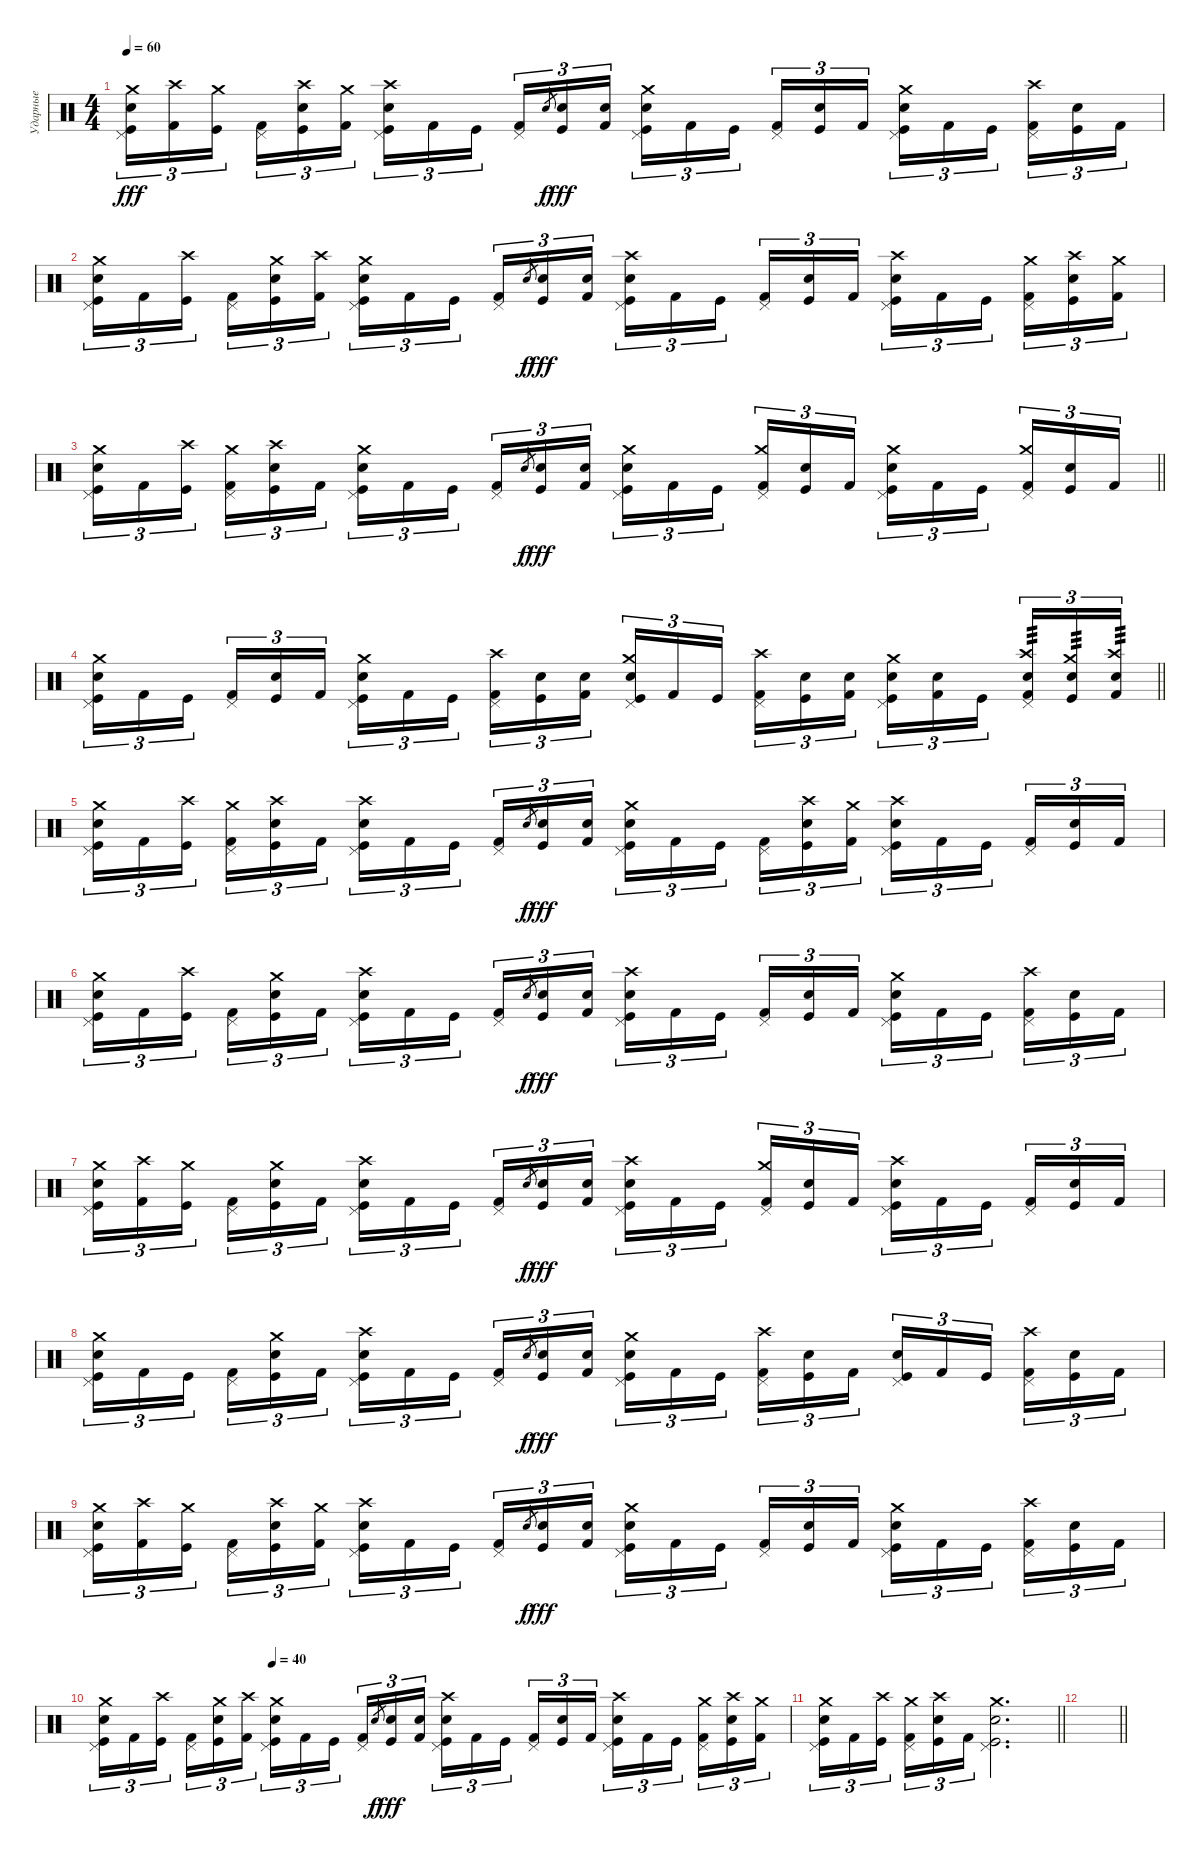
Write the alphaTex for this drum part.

\track ("Ударные" "Ударные") {instrument percussion}
\staff {score}
\articulation defaults
\ts (4 4)
\tempo 60
\clef neutral
\ks c
("Snare (hit) 2" "Kick (hit)" "Pedal Hi-Hat (hit)" "Crash medium (hit)").16{tu (3 2) dy fff} ("Kick (hit) 2" "Crash high (hit)").16{tu (3 2)} ("Kick (hit)" "Crash medium (hit)").16{tu (3 2) beam splitsecondary} ("Kick (hit) 2" "Pedal Hi-Hat (hit)").16{tu (3 2)} ("Snare (hit) 2" "Kick (hit)" "Crash high (hit)").16{tu (3 2)} ("Kick (hit) 2" "Crash medium (hit)").16{tu (3 2)} ("Snare (hit) 2" "Kick (hit)" "Pedal Hi-Hat (hit)" "Crash high (hit)").16{tu (3 2)} "Kick (hit) 2".16{tu (3 2)} "Kick (hit)".16{tu (3 2) beam splitsecondary} ("Kick (hit) 2" "Pedal Hi-Hat (hit)").16{tu (3 2)} "Electric Snare (hit)".8{gr dy f} ("Electric Snare (hit)" "Kick (hit)").16{tu (3 2) dy fff} ("Electric Snare (hit)" "Kick (hit) 2").16{tu (3 2)} ("Snare (hit) 2" "Kick (hit)" "Pedal Hi-Hat (hit)" "Crash medium (hit)").16{tu (3 2)} "Kick (hit) 2".16{tu (3 2)} "Kick (hit)".16{tu (3 2) beam splitsecondary} ("Kick (hit) 2" "Pedal Hi-Hat (hit)").16{tu (3 2)} ("Snare (hit) 2" "Kick (hit)").16{tu (3 2)} "Kick (hit) 2".16{tu (3 2)} ("Snare (hit) 2" "Kick (hit)" "Pedal Hi-Hat (hit)" "Crash medium (hit)").16{tu (3 2)} "Kick (hit) 2".16{tu (3 2)} "Kick (hit)".16{tu (3 2) beam splitsecondary} ("Kick (hit) 2" "Pedal Hi-Hat (hit)" "Crash high (hit)").16{tu (3 2)} ("Snare (hit) 2" "Kick (hit)").16{tu (3 2)} "Kick (hit) 2".16{tu (3 2)} |
("Snare (hit) 2" "Kick (hit)" "Pedal Hi-Hat (hit)" "Crash medium (hit)").16{tu (3 2)} "Kick (hit) 2".16{tu (3 2)} ("Kick (hit)" "Crash high (hit)").16{tu (3 2) beam splitsecondary} ("Kick (hit) 2" "Pedal Hi-Hat (hit)").16{tu (3 2)} ("Snare (hit) 2" "Kick (hit)" "Crash medium (hit)").16{tu (3 2)} ("Kick (hit) 2" "Crash high (hit)").16{tu (3 2)} ("Snare (hit) 2" "Kick (hit)" "Pedal Hi-Hat (hit)" "Crash medium (hit)").16{tu (3 2)} "Kick (hit) 2".16{tu (3 2)} "Kick (hit)".16{tu (3 2) beam splitsecondary} ("Kick (hit) 2" "Pedal Hi-Hat (hit)").16{tu (3 2)} "Electric Snare (hit)".8{gr dy f} ("Electric Snare (hit)" "Kick (hit)").16{tu (3 2) dy fff} ("Electric Snare (hit)" "Kick (hit) 2").16{tu (3 2)} ("Snare (hit) 2" "Kick (hit)" "Pedal Hi-Hat (hit)" "Crash high (hit)").16{tu (3 2)} "Kick (hit) 2".16{tu (3 2)} "Kick (hit)".16{tu (3 2) beam splitsecondary} ("Kick (hit) 2" "Pedal Hi-Hat (hit)").16{tu (3 2)} ("Snare (hit) 2" "Kick (hit)").16{tu (3 2)} "Kick (hit) 2".16{tu (3 2)} ("Snare (hit) 2" "Kick (hit)" "Pedal Hi-Hat (hit)" "Crash high (hit)").16{tu (3 2)} "Kick (hit) 2".16{tu (3 2)} "Kick (hit)".16{tu (3 2) beam splitsecondary} ("Kick (hit) 2" "Pedal Hi-Hat (hit)" "Crash medium (hit)").16{tu (3 2)} ("Snare (hit) 2" "Kick (hit)" "Crash high (hit)").16{tu (3 2)} ("Kick (hit) 2" "Crash medium (hit)").16{tu (3 2)} |
\barLineRight lightlight
("Snare (hit) 2" "Kick (hit)" "Pedal Hi-Hat (hit)" "Crash medium (hit)").16{tu (3 2)} "Kick (hit) 2".16{tu (3 2)} ("Kick (hit)" "Crash high (hit)").16{tu (3 2) beam splitsecondary} ("Kick (hit) 2" "Pedal Hi-Hat (hit)" "Crash medium (hit)").16{tu (3 2)} ("Snare (hit) 2" "Kick (hit)" "Crash high (hit)").16{tu (3 2)} "Kick (hit) 2".16{tu (3 2)} ("Snare (hit) 2" "Kick (hit)" "Pedal Hi-Hat (hit)" "Crash medium (hit)").16{tu (3 2)} "Kick (hit) 2".16{tu (3 2)} "Kick (hit)".16{tu (3 2) beam splitsecondary} ("Kick (hit) 2" "Pedal Hi-Hat (hit)").16{tu (3 2)} "Electric Snare (hit)".8{gr dy f} ("Electric Snare (hit)" "Kick (hit)").16{tu (3 2) dy fff} ("Electric Snare (hit)" "Kick (hit) 2").16{tu (3 2)} ("Snare (hit) 2" "Kick (hit)" "Pedal Hi-Hat (hit)" "Crash medium (hit)").16{tu (3 2)} "Kick (hit) 2".16{tu (3 2)} "Kick (hit)".16{tu (3 2) beam splitsecondary} ("Kick (hit) 2" "Pedal Hi-Hat (hit)" "Crash medium (hit)").16{tu (3 2)} ("Snare (hit) 2" "Kick (hit)").16{tu (3 2)} "Kick (hit) 2".16{tu (3 2)} ("Snare (hit) 2" "Kick (hit)" "Pedal Hi-Hat (hit)" "Crash medium (hit)").16{tu (3 2)} "Kick (hit) 2".16{tu (3 2)} "Kick (hit)".16{tu (3 2) beam splitsecondary} ("Kick (hit) 2" "Pedal Hi-Hat (hit)" "Crash medium (hit)").16{tu (3 2)} ("Snare (hit) 2" "Kick (hit)").16{tu (3 2)} "Kick (hit) 2".16{tu (3 2)} |
\barLineRight lightlight
("Snare (hit) 2" "Kick (hit)" "Pedal Hi-Hat (hit)" "Crash medium (hit)").16{tu (3 2)} "Kick (hit) 2".16{tu (3 2)} "Kick (hit)".16{tu (3 2) beam splitsecondary} ("Kick (hit) 2" "Pedal Hi-Hat (hit)").16{tu (3 2)} ("Snare (hit) 2" "Kick (hit)").16{tu (3 2)} "Kick (hit) 2".16{tu (3 2)} ("Snare (hit) 2" "Kick (hit)" "Pedal Hi-Hat (hit)" "Crash medium (hit)").16{tu (3 2)} "Kick (hit) 2".16{tu (3 2)} "Kick (hit)".16{tu (3 2) beam splitsecondary} ("Kick (hit) 2" "Pedal Hi-Hat (hit)" "Crash high (hit)").16{tu (3 2)} ("Electric Snare (hit)" "Kick (hit)").16{tu (3 2)} ("Snare (hit) 2" "Kick (hit) 2").16{tu (3 2)} ("Electric Snare (hit)" "Kick (hit)" "Pedal Hi-Hat (hit)" "Crash medium (hit)").16{tu (3 2)} "Kick (hit) 2".16{tu (3 2)} "Kick (hit)".16{tu (3 2) beam splitsecondary} ("Kick (hit) 2" "Pedal Hi-Hat (hit)" "Crash high (hit)").16{tu (3 2)} ("Snare (hit) 2" "Kick (hit)").16{tu (3 2)} ("Electric Snare (hit)" "Kick (hit) 2").16{tu (3 2)} ("Snare (hit) 2" "Kick (hit)" "Pedal Hi-Hat (hit)" "Crash medium (hit)").16{tu (3 2)} ("Electric Snare (hit)" "Kick (hit) 2").16{tu (3 2)} "Kick (hit)".16{tu (3 2) beam splitsecondary} ("Electric Snare (hit)" "Kick (hit) 2" "Pedal Hi-Hat (hit)" "Crash high (hit)").16{tu (3 2) tp 3} ("Electric Snare (hit)" "Kick (hit)" "Crash medium (hit)").16{tu (3 2) tp 3} ("Electric Snare (hit)" "Kick (hit) 2" "Crash high (hit)").16{tu (3 2) tp 3} |
("Snare (hit) 2" "Kick (hit)" "Pedal Hi-Hat (hit)" "Crash medium (hit)").16{tu (3 2)} "Kick (hit) 2".16{tu (3 2)} ("Kick (hit)" "Crash high (hit)").16{tu (3 2) beam splitsecondary} ("Kick (hit) 2" "Pedal Hi-Hat (hit)" "Crash medium (hit)").16{tu (3 2)} ("Snare (hit) 2" "Kick (hit)" "Crash high (hit)").16{tu (3 2)} "Kick (hit) 2".16{tu (3 2)} ("Snare (hit) 2" "Kick (hit)" "Pedal Hi-Hat (hit)" "Crash high (hit)").16{tu (3 2)} "Kick (hit) 2".16{tu (3 2)} "Kick (hit)".16{tu (3 2) beam splitsecondary} ("Kick (hit) 2" "Pedal Hi-Hat (hit)").16{tu (3 2)} "Electric Snare (hit)".8{gr dy f} ("Electric Snare (hit)" "Kick (hit)").16{tu (3 2) dy fff} ("Electric Snare (hit)" "Kick (hit) 2").16{tu (3 2)} ("Snare (hit) 2" "Kick (hit)" "Pedal Hi-Hat (hit)" "Crash medium (hit)").16{tu (3 2)} "Kick (hit) 2".16{tu (3 2)} "Kick (hit)".16{tu (3 2) beam splitsecondary} ("Kick (hit) 2" "Pedal Hi-Hat (hit)").16{tu (3 2)} ("Snare (hit) 2" "Kick (hit)" "Crash high (hit)").16{tu (3 2)} ("Kick (hit) 2" "Crash medium (hit)").16{tu (3 2)} ("Snare (hit) 2" "Kick (hit)" "Pedal Hi-Hat (hit)" "Crash high (hit)").16{tu (3 2)} "Kick (hit) 2".16{tu (3 2)} "Kick (hit)".16{tu (3 2) beam splitsecondary} ("Kick (hit) 2" "Pedal Hi-Hat (hit)").16{tu (3 2)} ("Snare (hit) 2" "Kick (hit)").16{tu (3 2)} "Kick (hit) 2".16{tu (3 2)} |
("Snare (hit) 2" "Kick (hit)" "Pedal Hi-Hat (hit)" "Crash medium (hit)").16{tu (3 2)} "Kick (hit) 2".16{tu (3 2)} ("Kick (hit)" "Crash high (hit)").16{tu (3 2) beam splitsecondary} ("Kick (hit) 2" "Pedal Hi-Hat (hit)").16{tu (3 2)} ("Snare (hit) 2" "Kick (hit)" "Crash medium (hit)").16{tu (3 2)} "Kick (hit) 2".16{tu (3 2)} ("Snare (hit) 2" "Kick (hit)" "Pedal Hi-Hat (hit)" "Crash high (hit)").16{tu (3 2)} "Kick (hit) 2".16{tu (3 2)} "Kick (hit)".16{tu (3 2) beam splitsecondary} ("Kick (hit) 2" "Pedal Hi-Hat (hit)").16{tu (3 2)} "Electric Snare (hit)".8{gr dy f} ("Electric Snare (hit)" "Kick (hit)").16{tu (3 2) dy fff} ("Electric Snare (hit)" "Kick (hit) 2").16{tu (3 2)} ("Snare (hit) 2" "Kick (hit)" "Pedal Hi-Hat (hit)" "Crash high (hit)").16{tu (3 2)} "Kick (hit) 2".16{tu (3 2)} "Kick (hit)".16{tu (3 2) beam splitsecondary} ("Kick (hit) 2" "Pedal Hi-Hat (hit)").16{tu (3 2)} ("Snare (hit) 2" "Kick (hit)").16{tu (3 2)} "Kick (hit) 2".16{tu (3 2)} ("Snare (hit) 2" "Kick (hit)" "Pedal Hi-Hat (hit)" "Crash medium (hit)").16{tu (3 2)} "Kick (hit) 2".16{tu (3 2)} "Kick (hit)".16{tu (3 2) beam splitsecondary} ("Kick (hit) 2" "Pedal Hi-Hat (hit)" "Crash high (hit)").16{tu (3 2)} ("Snare (hit) 2" "Kick (hit)").16{tu (3 2)} "Kick (hit) 2".16{tu (3 2)} |
("Snare (hit) 2" "Kick (hit)" "Pedal Hi-Hat (hit)" "Crash medium (hit)").16{tu (3 2)} ("Kick (hit) 2" "Crash high (hit)").16{tu (3 2)} ("Kick (hit)" "Crash medium (hit)").16{tu (3 2) beam splitsecondary} ("Kick (hit) 2" "Pedal Hi-Hat (hit)").16{tu (3 2)} ("Snare (hit) 2" "Kick (hit)" "Crash medium (hit)").16{tu (3 2)} "Kick (hit) 2".16{tu (3 2)} ("Snare (hit) 2" "Kick (hit)" "Pedal Hi-Hat (hit)" "Crash high (hit)").16{tu (3 2)} "Kick (hit) 2".16{tu (3 2)} "Kick (hit)".16{tu (3 2) beam splitsecondary} ("Kick (hit) 2" "Pedal Hi-Hat (hit)").16{tu (3 2)} "Electric Snare (hit)".8{gr dy f} ("Electric Snare (hit)" "Kick (hit)").16{tu (3 2) dy fff} ("Electric Snare (hit)" "Kick (hit) 2").16{tu (3 2)} ("Snare (hit) 2" "Kick (hit)" "Pedal Hi-Hat (hit)" "Crash high (hit)").16{tu (3 2)} "Kick (hit) 2".16{tu (3 2)} "Kick (hit)".16{tu (3 2) beam splitsecondary} ("Kick (hit) 2" "Pedal Hi-Hat (hit)" "Crash medium (hit)").16{tu (3 2)} ("Snare (hit) 2" "Kick (hit)").16{tu (3 2)} "Kick (hit) 2".16{tu (3 2)} ("Snare (hit) 2" "Kick (hit)" "Pedal Hi-Hat (hit)" "Crash high (hit)").16{tu (3 2)} "Kick (hit) 2".16{tu (3 2)} "Kick (hit)".16{tu (3 2) beam splitsecondary} ("Kick (hit) 2" "Pedal Hi-Hat (hit)").16{tu (3 2)} ("Snare (hit) 2" "Kick (hit)").16{tu (3 2)} "Kick (hit) 2".16{tu (3 2)} |
("Snare (hit) 2" "Kick (hit)" "Pedal Hi-Hat (hit)" "Crash medium (hit)").16{tu (3 2)} "Kick (hit) 2".16{tu (3 2)} "Kick (hit)".16{tu (3 2) beam splitsecondary} ("Kick (hit) 2" "Pedal Hi-Hat (hit)").16{tu (3 2)} ("Snare (hit) 2" "Kick (hit)" "Crash medium (hit)").16{tu (3 2)} "Kick (hit) 2".16{tu (3 2)} ("Snare (hit) 2" "Kick (hit)" "Pedal Hi-Hat (hit)" "Crash high (hit)").16{tu (3 2)} "Kick (hit) 2".16{tu (3 2)} "Kick (hit)".16{tu (3 2) beam splitsecondary} ("Kick (hit) 2" "Pedal Hi-Hat (hit)").16{tu (3 2)} "Electric Snare (hit)".8{gr dy f} ("Electric Snare (hit)" "Kick (hit)").16{tu (3 2) dy fff} ("Electric Snare (hit)" "Kick (hit) 2").16{tu (3 2)} ("Snare (hit) 2" "Kick (hit)" "Pedal Hi-Hat (hit)" "Crash medium (hit)").16{tu (3 2)} "Kick (hit) 2".16{tu (3 2)} "Kick (hit)".16{tu (3 2) beam splitsecondary} ("Kick (hit) 2" "Pedal Hi-Hat (hit)" "Crash high (hit)").16{tu (3 2)} ("Snare (hit) 2" "Kick (hit)").16{tu (3 2)} "Kick (hit) 2".16{tu (3 2)} ("Snare (hit) 2" "Kick (hit)" "Pedal Hi-Hat (hit)").16{tu (3 2)} "Kick (hit) 2".16{tu (3 2)} "Kick (hit)".16{tu (3 2) beam splitsecondary} ("Kick (hit) 2" "Pedal Hi-Hat (hit)" "Crash high (hit)").16{tu (3 2)} ("Snare (hit) 2" "Kick (hit)").16{tu (3 2)} "Kick (hit) 2".16{tu (3 2)} |
("Snare (hit) 2" "Kick (hit)" "Pedal Hi-Hat (hit)" "Crash medium (hit)").16{tu (3 2)} ("Kick (hit) 2" "Crash high (hit)").16{tu (3 2)} ("Kick (hit)" "Crash medium (hit)").16{tu (3 2) beam splitsecondary} ("Kick (hit) 2" "Pedal Hi-Hat (hit)").16{tu (3 2)} ("Snare (hit) 2" "Kick (hit)" "Crash high (hit)").16{tu (3 2)} ("Kick (hit) 2" "Crash medium (hit)").16{tu (3 2)} ("Snare (hit) 2" "Kick (hit)" "Pedal Hi-Hat (hit)" "Crash high (hit)").16{tu (3 2)} "Kick (hit) 2".16{tu (3 2)} "Kick (hit)".16{tu (3 2) beam splitsecondary} ("Kick (hit) 2" "Pedal Hi-Hat (hit)").16{tu (3 2)} "Electric Snare (hit)".8{gr dy f} ("Electric Snare (hit)" "Kick (hit)").16{tu (3 2) dy fff} ("Electric Snare (hit)" "Kick (hit) 2").16{tu (3 2)} ("Snare (hit) 2" "Kick (hit)" "Pedal Hi-Hat (hit)" "Crash medium (hit)").16{tu (3 2)} "Kick (hit) 2".16{tu (3 2)} "Kick (hit)".16{tu (3 2) beam splitsecondary} ("Kick (hit) 2" "Pedal Hi-Hat (hit)").16{tu (3 2)} ("Snare (hit) 2" "Kick (hit)").16{tu (3 2)} "Kick (hit) 2".16{tu (3 2)} ("Snare (hit) 2" "Kick (hit)" "Pedal Hi-Hat (hit)" "Crash medium (hit)").16{tu (3 2)} "Kick (hit) 2".16{tu (3 2)} "Kick (hit)".16{tu (3 2) beam splitsecondary} ("Kick (hit) 2" "Pedal Hi-Hat (hit)" "Crash high (hit)").16{tu (3 2)} ("Snare (hit) 2" "Kick (hit)").16{tu (3 2)} "Kick (hit) 2".16{tu (3 2)} |
\tempo (40 0.25)
("Snare (hit) 2" "Kick (hit)" "Pedal Hi-Hat (hit)" "Crash medium (hit)").16{tu (3 2)} "Kick (hit) 2".16{tu (3 2)} ("Kick (hit)" "Crash high (hit)").16{tu (3 2) beam splitsecondary} ("Kick (hit) 2" "Pedal Hi-Hat (hit)").16{tu (3 2)} ("Snare (hit) 2" "Kick (hit)" "Crash medium (hit)").16{tu (3 2)} ("Kick (hit) 2" "Crash high (hit)").16{tu (3 2)} ("Snare (hit) 2" "Kick (hit)" "Pedal Hi-Hat (hit)" "Crash medium (hit)").16{tu (3 2)} "Kick (hit) 2".16{tu (3 2)} "Kick (hit)".16{tu (3 2) beam splitsecondary} ("Kick (hit) 2" "Pedal Hi-Hat (hit)").16{tu (3 2)} "Electric Snare (hit)".8{gr dy f} ("Electric Snare (hit)" "Kick (hit)").16{tu (3 2) dy fff} ("Electric Snare (hit)" "Kick (hit) 2").16{tu (3 2)} ("Snare (hit) 2" "Kick (hit)" "Pedal Hi-Hat (hit)" "Crash high (hit)").16{tu (3 2)} "Kick (hit) 2".16{tu (3 2)} "Kick (hit)".16{tu (3 2) beam splitsecondary} ("Kick (hit) 2" "Pedal Hi-Hat (hit)").16{tu (3 2)} ("Snare (hit) 2" "Kick (hit)").16{tu (3 2)} "Kick (hit) 2".16{tu (3 2)} ("Snare (hit) 2" "Kick (hit)" "Pedal Hi-Hat (hit)" "Crash high (hit)").16{tu (3 2)} "Kick (hit) 2".16{tu (3 2)} "Kick (hit)".16{tu (3 2) beam splitsecondary} ("Kick (hit) 2" "Pedal Hi-Hat (hit)" "Crash medium (hit)").16{tu (3 2)} ("Snare (hit) 2" "Kick (hit)" "Crash high (hit)").16{tu (3 2)} ("Kick (hit) 2" "Crash medium (hit)").16{tu (3 2)} |
\barLineRight lightlight
("Snare (hit) 2" "Kick (hit)" "Pedal Hi-Hat (hit)" "Crash medium (hit)").16{tu (3 2)} "Kick (hit) 2".16{tu (3 2)} ("Kick (hit)" "Crash high (hit)").16{tu (3 2) beam splitsecondary} ("Kick (hit) 2" "Pedal Hi-Hat (hit)" "Crash medium (hit)").16{tu (3 2)} ("Snare (hit) 2" "Kick (hit)" "Crash high (hit)").16{tu (3 2)} "Kick (hit) 2".16{tu (3 2)} ("Snare (hit) 2" "Kick (hit)" "Pedal Hi-Hat (hit)" "Crash medium (hit)").2{d} |
\barLineRight lightlight
